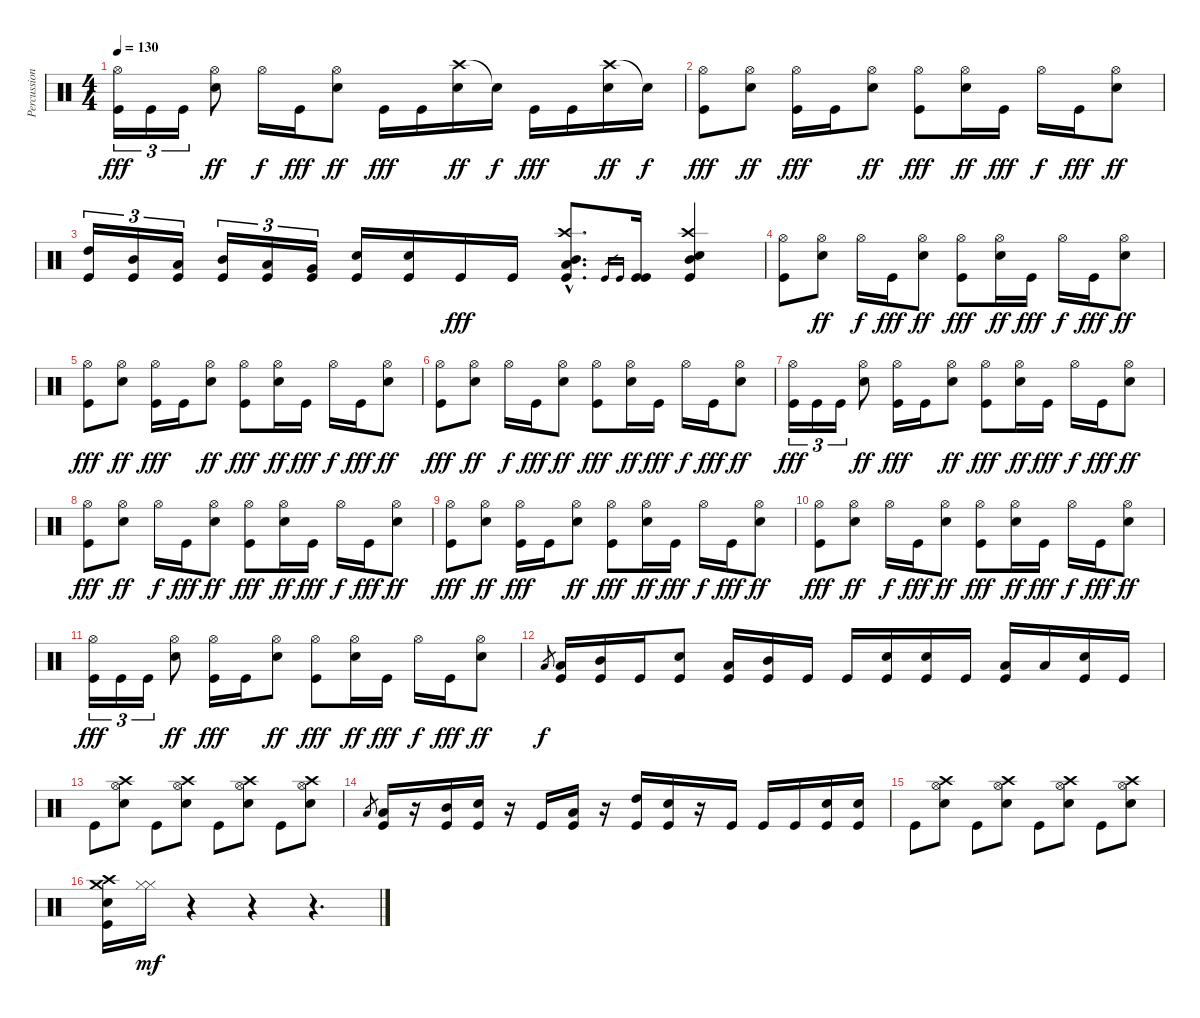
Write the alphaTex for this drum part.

\track ("Percussion" "Percussion") {instrument percussion}
\staff {score}
\articulation defaults
\ts (4 4)
\tempo 130
\clef neutral
\ks c
("Hi-Hat (open)" "Kick (hit)").16{tu (3 2) dy fff} "Kick (hit)".16{tu (3 2)} "Kick (hit)".16{tu (3 2)} ("Hi-Hat (open)" "Snare (hit) 2").8{dy ff} "Hi-Hat (open)".16{dy f} "Kick (hit)".16{dy fff} ("Hi-Hat (open)" "Snare (hit) 2").8{dy ff} "Kick (hit)".16{dy fff} "Kick (hit)".16 ("Crash high (hit)" "Snare (hit) 2").16{dy ff} "Snare (hit)"{t}.16{dy f} "Kick (hit)".16{dy fff} "Kick (hit)".16 ("Crash high (hit)" "Snare (hit) 2").16{dy ff} "Snare (hit)"{t}.16{dy f} |
("Hi-Hat (open)" "Kick (hit)").8{dy fff} ("Hi-Hat (open)" "Snare (hit) 2").8{dy ff} ("Hi-Hat (open)" "Kick (hit)").16{dy fff} "Kick (hit)".16 ("Hi-Hat (open)" "Snare (hit) 2").8{dy ff} ("Hi-Hat (open)" "Kick (hit)").8{dy fff} ("Hi-Hat (open)" "Snare (hit) 2").16{dy ff} "Kick (hit)".16{dy fff} "Hi-Hat (open)".16{dy f} "Kick (hit)".16{dy fff} ("Hi-Hat (open)" "Snare (hit) 2").8{dy ff} |
("High Tom (hit)" "Kick (hit)").16{tu (3 2)} ("Mid Tom (hit)" "Kick (hit)").16{tu (3 2)} ("Low Tom (hit)" "Kick (hit)").16{tu (3 2)} ("Mid Tom (hit)" "Kick (hit)").16{tu (3 2)} ("Low Tom (hit)" "Kick (hit)").16{tu (3 2)} ("Very Low Tom (hit)" "Kick (hit)").16{tu (3 2)} ("Snare (hit) 2" "Kick (hit)").16 ("Snare (hit) 2" "Kick (hit)").16 "Kick (hit)".16{dy fff} "Kick (hit)".16 ("Crash high (hit)"{hac} "Mid Tom (hit)"{hac} "Low Tom (hit)"{hac} "Kick (hit)"{hac}).8{d} "Kick (hit)".16{gr} "Kick (hit)".16{gr} ("Kick (hit)" "Kick (hit)").16 ("Crash high (hit)" "Mid Tom (hit)" "Snare (hit) 2" "Kick (hit)").4 |
("Hi-Hat (open)" "Kick (hit)").8 ("Hi-Hat (open)" "Snare (hit) 2").8{dy ff} "Hi-Hat (open)".16{dy f} "Kick (hit)".16{dy fff} ("Hi-Hat (open)" "Snare (hit) 2").8{dy ff} ("Hi-Hat (open)" "Kick (hit)").8{dy fff} ("Hi-Hat (open)" "Snare (hit) 2").16{dy ff} "Kick (hit)".16{dy fff} "Hi-Hat (open)".16{dy f} "Kick (hit)".16{dy fff} ("Hi-Hat (open)" "Snare (hit) 2").8{dy ff} |
("Hi-Hat (open)" "Kick (hit)").8{dy fff} ("Hi-Hat (open)" "Snare (hit) 2").8{dy ff} ("Hi-Hat (open)" "Kick (hit)").16{dy fff} "Kick (hit)".16 ("Hi-Hat (open)" "Snare (hit) 2").8{dy ff} ("Hi-Hat (open)" "Kick (hit)").8{dy fff} ("Hi-Hat (open)" "Snare (hit) 2").16{dy ff} "Kick (hit)".16{dy fff} "Hi-Hat (open)".16{dy f} "Kick (hit)".16{dy fff} ("Hi-Hat (open)" "Snare (hit) 2").8{dy ff} |
("Hi-Hat (open)" "Kick (hit)").8{dy fff} ("Hi-Hat (open)" "Snare (hit) 2").8{dy ff} "Hi-Hat (open)".16{dy f} "Kick (hit)".16{dy fff} ("Hi-Hat (open)" "Snare (hit) 2").8{dy ff} ("Hi-Hat (open)" "Kick (hit)").8{dy fff} ("Hi-Hat (open)" "Snare (hit) 2").16{dy ff} "Kick (hit)".16{dy fff} "Hi-Hat (open)".16{dy f} "Kick (hit)".16{dy fff} ("Hi-Hat (open)" "Snare (hit) 2").8{dy ff} |
("Hi-Hat (open)" "Kick (hit)").16{tu (3 2) dy fff} "Kick (hit)".16{tu (3 2)} "Kick (hit)".16{tu (3 2)} ("Hi-Hat (open)" "Snare (hit) 2").8{dy ff} ("Hi-Hat (open)" "Kick (hit)").16{dy fff} "Kick (hit)".16 ("Hi-Hat (open)" "Snare (hit) 2").8{dy ff} ("Hi-Hat (open)" "Kick (hit)").8{dy fff} ("Hi-Hat (open)" "Snare (hit) 2").16{dy ff} "Kick (hit)".16{dy fff} "Hi-Hat (open)".16{dy f} "Kick (hit)".16{dy fff} ("Hi-Hat (open)" "Snare (hit) 2").8{dy ff} |
("Hi-Hat (open)" "Kick (hit)").8{dy fff} ("Hi-Hat (open)" "Snare (hit) 2").8{dy ff} "Hi-Hat (open)".16{dy f} "Kick (hit)".16{dy fff} ("Hi-Hat (open)" "Snare (hit) 2").8{dy ff} ("Hi-Hat (open)" "Kick (hit)").8{dy fff} ("Hi-Hat (open)" "Snare (hit) 2").16{dy ff} "Kick (hit)".16{dy fff} "Hi-Hat (open)".16{dy f} "Kick (hit)".16{dy fff} ("Hi-Hat (open)" "Snare (hit) 2").8{dy ff} |
("Hi-Hat (open)" "Kick (hit)").8{dy fff} ("Hi-Hat (open)" "Snare (hit) 2").8{dy ff} ("Hi-Hat (open)" "Kick (hit)").16{dy fff} "Kick (hit)".16 ("Hi-Hat (open)" "Snare (hit) 2").8{dy ff} ("Hi-Hat (open)" "Kick (hit)").8{dy fff} ("Hi-Hat (open)" "Snare (hit) 2").16{dy ff} "Kick (hit)".16{dy fff} "Hi-Hat (open)".16{dy f} "Kick (hit)".16{dy fff} ("Hi-Hat (open)" "Snare (hit) 2").8{dy ff} |
("Hi-Hat (open)" "Kick (hit)").8{dy fff} ("Hi-Hat (open)" "Snare (hit) 2").8{dy ff} "Hi-Hat (open)".16{dy f} "Kick (hit)".16{dy fff} ("Hi-Hat (open)" "Snare (hit) 2").8{dy ff} ("Hi-Hat (open)" "Kick (hit)").8{dy fff} ("Hi-Hat (open)" "Snare (hit) 2").16{dy ff} "Kick (hit)".16{dy fff} "Hi-Hat (open)".16{dy f} "Kick (hit)".16{dy fff} ("Hi-Hat (open)" "Snare (hit) 2").8{dy ff} |
("Hi-Hat (open)" "Kick (hit)").16{tu (3 2) dy fff} "Kick (hit)".16{tu (3 2)} "Kick (hit)".16{tu (3 2)} ("Hi-Hat (open)" "Snare (hit) 2").8{dy ff} ("Hi-Hat (open)" "Kick (hit)").16{dy fff} "Kick (hit)".16 ("Hi-Hat (open)" "Snare (hit) 2").8{dy ff} ("Hi-Hat (open)" "Kick (hit)").8{dy fff} ("Hi-Hat (open)" "Snare (hit) 2").16{dy ff} "Kick (hit)".16{dy fff} "Hi-Hat (open)".16{dy f} "Kick (hit)".16{dy fff} ("Hi-Hat (open)" "Snare (hit) 2").8{dy ff} |
"Low Tom (hit)".8{gr dy f} ("Low Tom (hit)" "Kick (hit)").16 ("Mid Tom (hit)" "Kick (hit)").16 "Kick (hit)".16 ("Snare (hit) 2" "Kick (hit)").8 ("Low Tom (hit)" "Kick (hit)").16 ("Mid Tom (hit)" "Kick (hit)").16 "Kick (hit)".16 "Kick (hit)".16 ("Snare (hit) 2" "Kick (hit)").16 ("Snare (hit) 2" "Kick (hit)").16 "Kick (hit)".16 ("Low Tom (hit)" "Kick (hit)").16 "Low Tom (hit)".16 ("Snare (hit) 2" "Kick (hit)").16 "Kick (hit)".16 |
"Kick (hit)".8 ("Hi-Hat (open)" "Crash high (hit)" "Snare (hit) 2").8 "Kick (hit)".8 ("Hi-Hat (open)" "Crash high (hit)" "Snare (hit) 2").8 "Kick (hit)".8 ("Hi-Hat (open)" "Crash high (hit)" "Snare (hit) 2").8 "Kick (hit)".8 ("Hi-Hat (open)" "Crash high (hit)" "Snare (hit) 2").8 |
"Low Tom (hit)".8{gr} ("Low Tom (hit)" "Kick (hit)").16 r.16 ("Mid Tom (hit)" "Kick (hit)").16 ("Snare (hit) 2" "Kick (hit)").16 r.16 "Kick (hit)".16 ("Low Tom (hit)" "Kick (hit)").16 r.16 ("High Tom (hit)" "Kick (hit)").16 ("Snare (hit) 2" "Kick (hit)").16 r.16 "Kick (hit)".16 "Kick (hit)".16 "Kick (hit)".16 ("Snare (hit) 2" "Kick (hit)").16 ("Snare (hit) 2" "Kick (hit)").16 |
"Kick (hit)".8 ("Hi-Hat (open)" "Crash high (hit)" "Snare (hit) 2").8 "Kick (hit)".8 ("Hi-Hat (open)" "Crash high (hit)" "Snare (hit) 2").8 "Kick (hit)".8 ("Hi-Hat (open)" "Crash high (hit)" "Snare (hit) 2").8 "Kick (hit)".8 ("Hi-Hat (open)" "Crash high (hit)" "Snare (hit) 2").8 |
("Crash high (hit)" "Crash medium (hit)" "Snare (hit) 2" "Kick (hit)").16 ("Hi-Hat (closed)" "Hi-Hat (closed)").16{dy mf} r.4 r.4 r.4{d}
